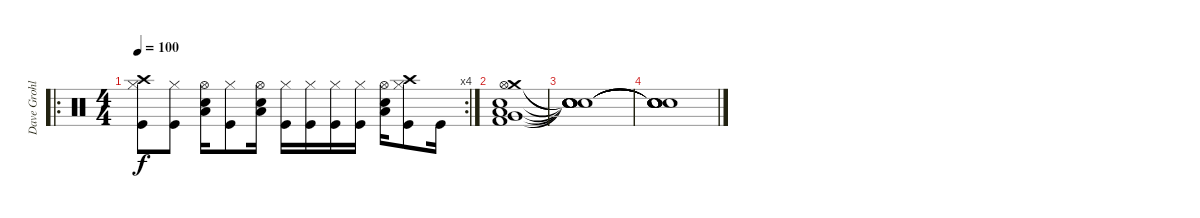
\track ("Dave Grohl" "Dave Grohl") {instrument percussion}
\staff {score}
\articulation defaults
\ro
\rc 4
\ts (4 4)
\tempo 100
\clef neutral
\ks c
("Crash high (hit)" "Kick (hit)" "Hi-Hat (closed)").8{dy f} ("Kick (hit)" "Hi-Hat (closed)").8 ("Snare (hit) 2" "Low Tom (hit)" "Hi-Hat (open)").16 ("Kick (hit)" "Hi-Hat (closed)").8 ("Snare (hit) 2" "Low Tom (hit)" "Hi-Hat (open)").16 ("Kick (hit)" "Hi-Hat (closed)").16 ("Kick (hit)" "Hi-Hat (closed)").16 ("Kick (hit)" "Hi-Hat (closed)").16 ("Kick (hit)" "Hi-Hat (closed)").16 ("Snare (hit) 2" "Low Tom (hit)" "Hi-Hat (open)").16 ("Crash high (hit)" "Kick (hit)" "Hi-Hat (closed)").8 "Kick (hit)".16 |
("Hi-Hat (open)" "Kick (hit) 2" "Crash medium (hit)" "Snare (hit) 2" "Low Tom (hit)" "Very Low Tom (hit)").1 |
("Snare (hit)"{t} "Snare (hit)"{t} "Snare (hit)"{t} "Snare (hit)"{t} "Snare (hit)"{t} "Snare (hit)"{t}).1 |
("Snare (hit)"{t} "Snare (hit)"{t} "Snare (hit)"{t} "Snare (hit)"{t} "Snare (hit)"{t} "Snare (hit)"{t}).1
